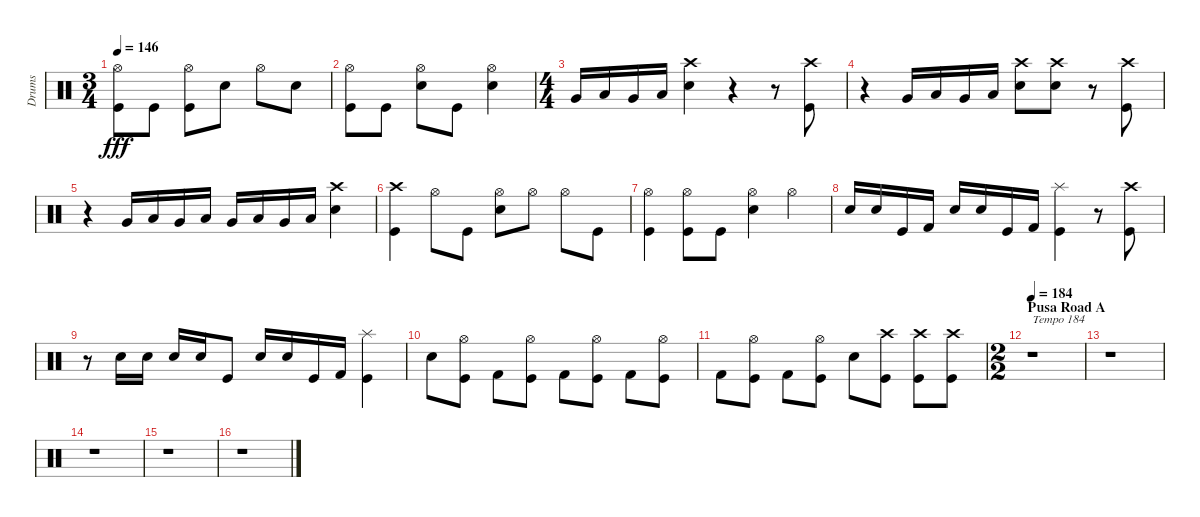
\track ("Drums" "Drums") {instrument percussion}
\staff {score}
\articulation defaults
\ts (3 4)
\tempo 146
\clef neutral
\ks c
("Hi-Hat (open)" "Kick (hit)").8{dy fff} "Kick (hit)".8 ("Hi-Hat (open)" "Kick (hit)").8 "Snare (hit) 2".8 "Hi-Hat (open)".8 "Snare (hit) 2".8 |
("Hi-Hat (open)" "Kick (hit)").8 "Kick (hit)".8 ("Hi-Hat (open)" "Snare (hit) 2").8 "Kick (hit)".8 ("Hi-Hat (open)" "Snare (hit) 2").4 |
\ts (4 4)
"Very Low Tom (hit)".16 "Low Floor Tom (hit)".16 "Very Low Tom (hit)".16 "Low Floor Tom (hit)".16 ("Crash high (hit)" "Snare (hit) 2").4 r.4 r.8 ("Crash high (hit)" "Kick (hit)").8 |
r.4 "Very Low Tom (hit)".16 "Low Floor Tom (hit)".16 "Very Low Tom (hit)".16 "Low Floor Tom (hit)".16 ("Crash high (hit)" "Snare (hit) 2").8 ("Crash high (hit)" "Snare (hit) 2").8 r.8 ("Crash high (hit)" "Kick (hit)").8 |
r.4 "Very Low Tom (hit)".16 "Low Floor Tom (hit)".16 "Very Low Tom (hit)".16 "Low Floor Tom (hit)".16 "Very Low Tom (hit)".16 "Low Floor Tom (hit)".16 "Very Low Tom (hit)".16 "Low Floor Tom (hit)".16 ("Crash high (hit)" "Snare (hit) 2").4 |
("Crash high (hit)" "Kick (hit)").4 "Hi-Hat (open)".8 "Kick (hit)".8 ("Hi-Hat (open)" "Snare (hit) 2").8 "Hi-Hat (open)".8 "Hi-Hat (open)".8 "Kick (hit)".8 |
("Hi-Hat (open)" "Kick (hit)").4 ("Hi-Hat (open)" "Kick (hit)").8 "Kick (hit)".8 ("Hi-Hat (open)" "Snare (hit) 2").4 "Hi-Hat (open)".4 |
"Snare (hit) 2".16 "Snare (hit) 2".16 "Kick (hit)".16 "Kick (hit) 2".16 "Snare (hit) 2".16 "Snare (hit) 2".16 "Kick (hit)".16 "Kick (hit) 2".16 ("Splash (hit)" "Kick (hit)").4 r.8 ("Crash high (hit)" "Kick (hit)").8 |
r.8 "Snare (hit) 2".16 "Snare (hit) 2".16 "Snare (hit) 2".16 "Snare (hit) 2".16 "Kick (hit)".8 "Snare (hit) 2".16 "Snare (hit) 2".16 "Kick (hit)".16 "Kick (hit) 2".16 ("Splash (hit)" "Kick (hit)").4 |
"Snare (hit) 2".8 ("Hi-Hat (open)" "Kick (hit)").8 "Kick (hit) 2".8 ("Hi-Hat (open)" "Kick (hit)").8 "Kick (hit) 2".8 ("Hi-Hat (open)" "Kick (hit)").8 "Kick (hit) 2".8 ("Hi-Hat (open)" "Kick (hit)").8 |
"Kick (hit) 2".8 ("Hi-Hat (open)" "Kick (hit)").8 "Kick (hit) 2".8 ("Hi-Hat (open)" "Kick (hit)").8 "Snare (hit) 2".8 ("Crash high (hit)" "Kick (hit)").8 ("Crash high (hit)" "Kick (hit)").8 ("Crash high (hit)" "Kick (hit)").8 |
\ts (2 2)
\section ("" "Pusa Road A")
\tempo 184
r.1{txt "Tempo 184"} |
r.1 |
r.1 |
r.1 |
r.1
